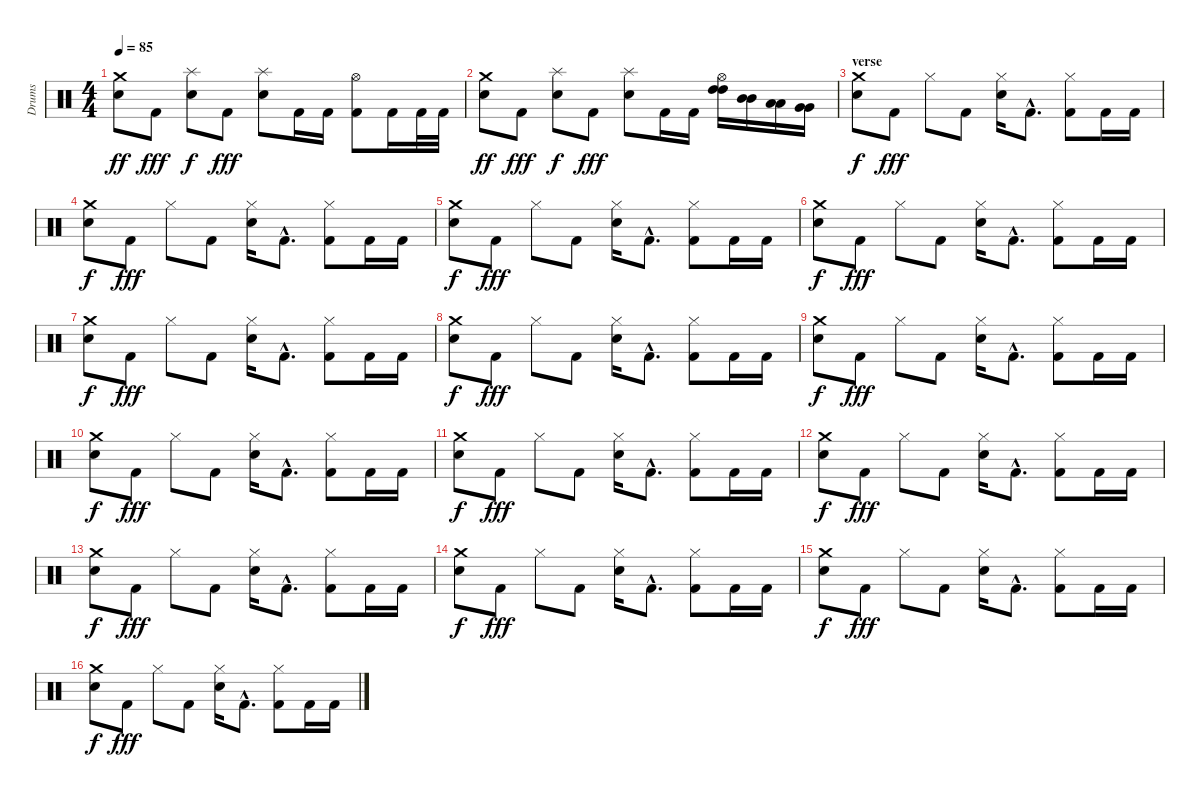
\track ("Drums" "Drums") {instrument percussion}
\staff {score}
\articulation defaults
\ts (4 4)
\tempo 85
\clef neutral
\ks c
("Electric Snare (hit)" "Crash medium (hit)").8{dy ff} "Kick (hit) 2".8{dy fff} ("Splash (hit)" "Snare (hit) 2").8{dy f} "Kick (hit) 2".8{dy fff} ("Splash (hit)" "Electric Snare (hit)").8 "Kick (hit) 2".16 "Kick (hit) 2".16 ("Hi-Hat (open)" "Kick (hit) 2").8 "Kick (hit) 2".16 "Kick (hit) 2".32 "Kick (hit) 2".32 |
("Electric Snare (hit)" "Crash medium (hit)").8{dy ff} "Kick (hit) 2".8{dy fff} ("Splash (hit)" "Snare (hit) 2").8{dy f} "Kick (hit) 2".8{dy fff} ("Splash (hit)" "Electric Snare (hit)").8 "Kick (hit) 2".16 "Kick (hit) 2".16 ("Hi-Hat (open)" "High Tom (hit)" "High Tom (hit)").16 ("Mid Tom (hit)" "Mid Tom (hit)").16 ("Low Tom (hit)" "Low Tom (hit)").16 ("Very Low Tom (hit)" "Very Low Tom (hit)").16 |
\section ("" "verse")
("Crash medium (hit)" "Electric Snare (hit)").8{dy f} "Kick (hit) 2".8{dy fff} "Hi-Hat (closed)".8 "Kick (hit) 2".8 ("Hi-Hat (closed)" "Electric Snare (hit)").16 "Kick (hit) 2"{hac}.8{d} ("Hi-Hat (closed)" "Kick (hit) 2").8 "Kick (hit) 2".16 "Kick (hit) 2".16 |
("Crash medium (hit)" "Electric Snare (hit)").8{dy f} "Kick (hit) 2".8{dy fff} "Hi-Hat (closed)".8 "Kick (hit) 2".8 ("Hi-Hat (closed)" "Electric Snare (hit)").16 "Kick (hit) 2"{hac}.8{d} ("Hi-Hat (closed)" "Kick (hit) 2").8 "Kick (hit) 2".16 "Kick (hit) 2".16 |
("Crash medium (hit)" "Electric Snare (hit)").8{dy f} "Kick (hit) 2".8{dy fff} "Hi-Hat (closed)".8 "Kick (hit) 2".8 ("Hi-Hat (closed)" "Electric Snare (hit)").16 "Kick (hit) 2"{hac}.8{d} ("Hi-Hat (closed)" "Kick (hit) 2").8 "Kick (hit) 2".16 "Kick (hit) 2".16 |
("Crash medium (hit)" "Electric Snare (hit)").8{dy f} "Kick (hit) 2".8{dy fff} "Hi-Hat (closed)".8 "Kick (hit) 2".8 ("Hi-Hat (closed)" "Electric Snare (hit)").16 "Kick (hit) 2"{hac}.8{d} ("Hi-Hat (closed)" "Kick (hit) 2").8 "Kick (hit) 2".16 "Kick (hit) 2".16 |
("Crash medium (hit)" "Electric Snare (hit)").8{dy f} "Kick (hit) 2".8{dy fff} "Hi-Hat (closed)".8 "Kick (hit) 2".8 ("Hi-Hat (closed)" "Electric Snare (hit)").16 "Kick (hit) 2"{hac}.8{d} ("Hi-Hat (closed)" "Kick (hit) 2").8 "Kick (hit) 2".16 "Kick (hit) 2".16 |
("Crash medium (hit)" "Electric Snare (hit)").8{dy f} "Kick (hit) 2".8{dy fff} "Hi-Hat (closed)".8 "Kick (hit) 2".8 ("Hi-Hat (closed)" "Electric Snare (hit)").16 "Kick (hit) 2"{hac}.8{d} ("Hi-Hat (closed)" "Kick (hit) 2").8 "Kick (hit) 2".16 "Kick (hit) 2".16 |
("Crash medium (hit)" "Electric Snare (hit)").8{dy f} "Kick (hit) 2".8{dy fff} "Hi-Hat (closed)".8 "Kick (hit) 2".8 ("Hi-Hat (closed)" "Electric Snare (hit)").16 "Kick (hit) 2"{hac}.8{d} ("Hi-Hat (closed)" "Kick (hit) 2").8 "Kick (hit) 2".16 "Kick (hit) 2".16 |
("Crash medium (hit)" "Electric Snare (hit)").8{dy f} "Kick (hit) 2".8{dy fff} "Hi-Hat (closed)".8 "Kick (hit) 2".8 ("Hi-Hat (closed)" "Electric Snare (hit)").16 "Kick (hit) 2"{hac}.8{d} ("Hi-Hat (closed)" "Kick (hit) 2").8 "Kick (hit) 2".16 "Kick (hit) 2".16 |
("Crash medium (hit)" "Electric Snare (hit)").8{dy f} "Kick (hit) 2".8{dy fff} "Hi-Hat (closed)".8 "Kick (hit) 2".8 ("Hi-Hat (closed)" "Electric Snare (hit)").16 "Kick (hit) 2"{hac}.8{d} ("Hi-Hat (closed)" "Kick (hit) 2").8 "Kick (hit) 2".16 "Kick (hit) 2".16 |
("Crash medium (hit)" "Electric Snare (hit)").8{dy f} "Kick (hit) 2".8{dy fff} "Hi-Hat (closed)".8 "Kick (hit) 2".8 ("Hi-Hat (closed)" "Electric Snare (hit)").16 "Kick (hit) 2"{hac}.8{d} ("Hi-Hat (closed)" "Kick (hit) 2").8 "Kick (hit) 2".16 "Kick (hit) 2".16 |
("Crash medium (hit)" "Electric Snare (hit)").8{dy f} "Kick (hit) 2".8{dy fff} "Hi-Hat (closed)".8 "Kick (hit) 2".8 ("Hi-Hat (closed)" "Electric Snare (hit)").16 "Kick (hit) 2"{hac}.8{d} ("Hi-Hat (closed)" "Kick (hit) 2").8 "Kick (hit) 2".16 "Kick (hit) 2".16 |
("Crash medium (hit)" "Electric Snare (hit)").8{dy f} "Kick (hit) 2".8{dy fff} "Hi-Hat (closed)".8 "Kick (hit) 2".8 ("Hi-Hat (closed)" "Electric Snare (hit)").16 "Kick (hit) 2"{hac}.8{d} ("Hi-Hat (closed)" "Kick (hit) 2").8 "Kick (hit) 2".16 "Kick (hit) 2".16 |
("Crash medium (hit)" "Electric Snare (hit)").8{dy f} "Kick (hit) 2".8{dy fff} "Hi-Hat (closed)".8 "Kick (hit) 2".8 ("Hi-Hat (closed)" "Electric Snare (hit)").16 "Kick (hit) 2"{hac}.8{d} ("Hi-Hat (closed)" "Kick (hit) 2").8 "Kick (hit) 2".16 "Kick (hit) 2".16 |
("Crash medium (hit)" "Electric Snare (hit)").8{dy f} "Kick (hit) 2".8{dy fff} "Hi-Hat (closed)".8 "Kick (hit) 2".8 ("Hi-Hat (closed)" "Electric Snare (hit)").16 "Kick (hit) 2"{hac}.8{d} ("Hi-Hat (closed)" "Kick (hit) 2").8 "Kick (hit) 2".16 "Kick (hit) 2".16
